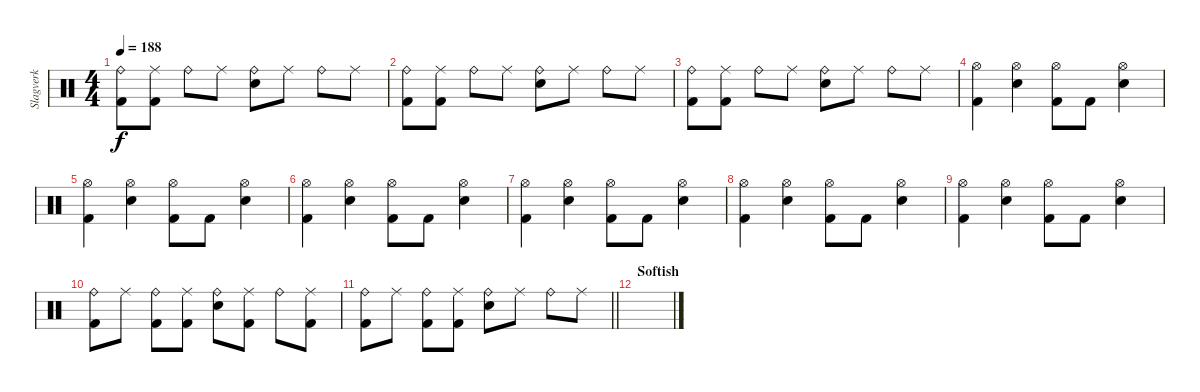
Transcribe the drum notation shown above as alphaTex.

\track ("Slagverk" "Slagverk") {instrument percussion}
\staff {score}
\articulation defaults
\ts (4 4)
\tempo 188
\clef neutral
\ks c
("Ride (bell)" "Kick (hit) 2").8{dy f} ("Ride (middle)" "Kick (hit) 2").8 "Ride (bell)".8 "Ride (middle)".8 ("Ride (bell)" "Electric Snare (hit)").8 "Ride (middle)".8 "Ride (bell)".8 "Ride (middle)".8 |
("Ride (bell)" "Kick (hit) 2").8 ("Ride (middle)" "Kick (hit) 2").8 "Ride (bell)".8 "Ride (middle)".8 ("Ride (bell)" "Electric Snare (hit)").8 "Ride (middle)".8 "Ride (bell)".8 "Ride (middle)".8 |
("Ride (bell)" "Kick (hit) 2").8 ("Ride (middle)" "Kick (hit) 2").8 "Ride (bell)".8 "Ride (middle)".8 ("Ride (bell)" "Electric Snare (hit)").8 "Ride (middle)".8 "Ride (bell)".8 "Ride (middle)".8 |
("Hi-Hat (open)" "Kick (hit) 2").4 ("Hi-Hat (open)" "Electric Snare (hit)").4 ("Hi-Hat (open)" "Kick (hit) 2").8 "Kick (hit) 2".8 ("Hi-Hat (open)" "Electric Snare (hit)").4 |
("Hi-Hat (open)" "Kick (hit) 2").4 ("Hi-Hat (open)" "Electric Snare (hit)").4 ("Hi-Hat (open)" "Kick (hit) 2").8 "Kick (hit) 2".8 ("Hi-Hat (open)" "Electric Snare (hit)").4 |
("Hi-Hat (open)" "Kick (hit) 2").4 ("Hi-Hat (open)" "Electric Snare (hit)").4 ("Hi-Hat (open)" "Kick (hit) 2").8 "Kick (hit) 2".8 ("Hi-Hat (open)" "Electric Snare (hit)").4 |
("Hi-Hat (open)" "Kick (hit) 2").4 ("Hi-Hat (open)" "Electric Snare (hit)").4 ("Hi-Hat (open)" "Kick (hit) 2").8 "Kick (hit) 2".8 ("Hi-Hat (open)" "Electric Snare (hit)").4 |
("Hi-Hat (open)" "Kick (hit) 2").4 ("Hi-Hat (open)" "Electric Snare (hit)").4 ("Hi-Hat (open)" "Kick (hit) 2").8 "Kick (hit) 2".8 ("Hi-Hat (open)" "Electric Snare (hit)").4 |
("Hi-Hat (open)" "Kick (hit) 2").4 ("Hi-Hat (open)" "Electric Snare (hit)").4 ("Hi-Hat (open)" "Kick (hit) 2").8 "Kick (hit) 2".8 ("Hi-Hat (open)" "Electric Snare (hit)").4 |
("Ride (bell)" "Kick (hit) 2").8 "Ride (middle)".8 ("Ride (bell)" "Kick (hit) 2").8 ("Ride (middle)" "Kick (hit) 2").8 ("Ride (bell)" "Electric Snare (hit)").8 ("Ride (middle)" "Kick (hit) 2").8 "Ride (bell)".8 ("Ride (middle)" "Kick (hit) 2").8 |
\barLineRight lightlight
("Ride (bell)" "Kick (hit) 2").8 "Ride (middle)".8 ("Ride (bell)" "Kick (hit) 2").8 ("Ride (middle)" "Kick (hit) 2").8 ("Ride (bell)" "Electric Snare (hit)").8 "Ride (middle)".8 "Ride (bell)".8 "Ride (middle)".8 |
\section ("" "Softish")
